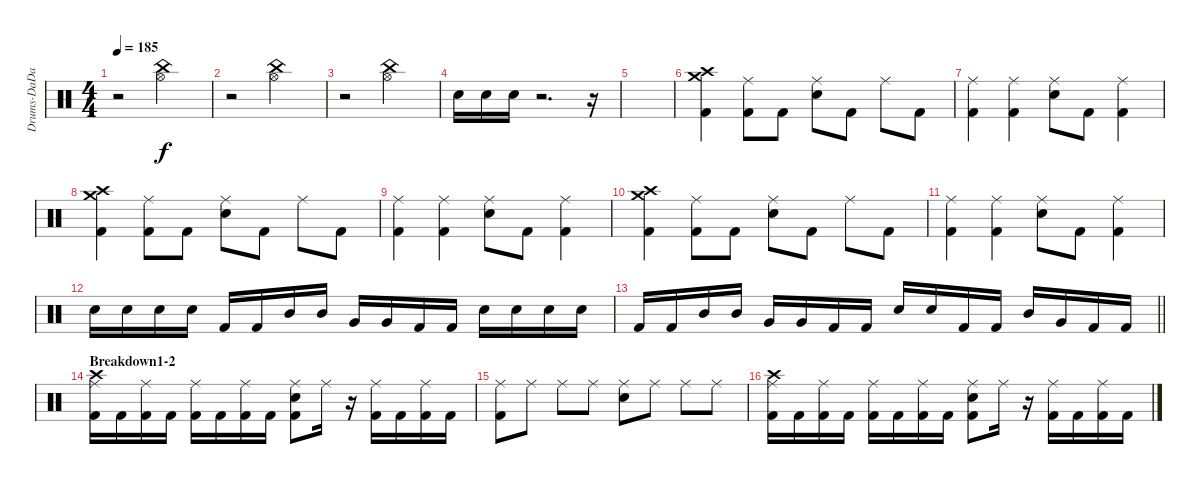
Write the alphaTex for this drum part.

\track ("Drums-DaDa" "Drums-DaDa") {instrument percussion}
\staff {score}
\articulation defaults
\ts (4 4)
\tempo 185
\clef neutral
\ks c
r.2{dy f} ("China (hit)" "Hi-Hat (open)").2 |
r.2 ("China (hit)" "Hi-Hat (open)").2 |
r.2 ("China (hit)" "Hi-Hat (open)").2 |
"Electric Snare (hit)".16 "Electric Snare (hit)".16 "Electric Snare (hit)".16 r.2{d} r.16 |
|
("Crash medium (hit)" "Crash high (hit)" "Kick (hit) 2").4 ("Ride (middle)" "Kick (hit) 2").8 "Kick (hit) 2".8 ("Ride (middle)" "Electric Snare (hit)").8 "Kick (hit) 2".8 "Ride (middle)".8 "Kick (hit) 2".8 |
("Ride (middle)" "Kick (hit) 2").4 ("Ride (middle)" "Kick (hit) 2").4 ("Ride (middle)" "Electric Snare (hit)").8 "Kick (hit) 2".8 ("Ride (middle)" "Kick (hit) 2").4 |
("Crash medium (hit)" "Crash high (hit)" "Kick (hit) 2").4 ("Ride (middle)" "Kick (hit) 2").8 "Kick (hit) 2".8 ("Ride (middle)" "Electric Snare (hit)").8 "Kick (hit) 2".8 "Ride (middle)".8 "Kick (hit) 2".8 |
("Ride (middle)" "Kick (hit) 2").4 ("Ride (middle)" "Kick (hit) 2").4 ("Ride (middle)" "Electric Snare (hit)").8 "Kick (hit) 2".8 ("Ride (middle)" "Kick (hit) 2").4 |
("Crash medium (hit)" "Crash high (hit)" "Kick (hit) 2").4 ("Ride (middle)" "Kick (hit) 2").8 "Kick (hit) 2".8 ("Ride (middle)" "Electric Snare (hit)").8 "Kick (hit) 2".8 "Ride (middle)".8 "Kick (hit) 2".8 |
("Ride (middle)" "Kick (hit) 2").4 ("Ride (middle)" "Kick (hit) 2").4 ("Ride (middle)" "Electric Snare (hit)").8 "Kick (hit) 2".8 ("Ride (middle)" "Kick (hit) 2").4 |
"Electric Snare (hit)".16 "Electric Snare (hit)".16 "Electric Snare (hit)".16 "Electric Snare (hit)".16 "Kick (hit) 2".16 "Kick (hit) 2".16 "Mid Tom (hit)".16 "Mid Tom (hit)".16 "Very Low Tom (hit)".16 "Very Low Tom (hit)".16 "Kick (hit) 2".16 "Kick (hit) 2".16 "Electric Snare (hit)".16 "Electric Snare (hit)".16 "Electric Snare (hit)".16 "Electric Snare (hit)".16 |
\barLineRight lightlight "Kick (hit) 2".16 "Kick (hit) 2".16 "Mid Tom (hit)".16 "Mid Tom (hit)".16 "Very Low Tom (hit)".16 "Very Low Tom (hit)".16 "Kick (hit) 2".16 "Kick (hit) 2".16 "Electric Snare (hit)".16 "Electric Snare (hit)".16 "Kick (hit) 2".16 "Kick (hit) 2".16 "Mid Tom (hit)".16 "Very Low Tom (hit)".16 "Kick (hit) 2".16 "Kick (hit) 2".16
|
\section ("" "Breakdown1-2")
("Crash high (hit)" "Ride (middle)" "Kick (hit) 2").16 "Kick (hit) 2".16 ("Ride (middle)" "Kick (hit) 2").16 "Kick (hit) 2".16 ("Ride (middle)" "Kick (hit) 2").16 "Kick (hit) 2".16 ("Ride (middle)" "Kick (hit) 2").16 "Kick (hit) 2".16 ("Ride (middle)" "Electric Snare (hit)" "Kick (hit) 2").8 "Ride (middle)".16 r.16 ("Ride (middle)" "Kick (hit) 2").16 "Kick (hit) 2".16 ("Ride (middle)" "Kick (hit) 2").16 "Kick (hit) 2".16 |
("Ride (middle)" "Kick (hit) 2").8 "Ride (middle)".8 "Ride (middle)".8 "Ride (middle)".8 ("Ride (middle)" "Electric Snare (hit)").8 "Ride (middle)".8 "Ride (middle)".8 "Ride (middle)".8 |
("Crash high (hit)" "Ride (middle)" "Kick (hit) 2").16 "Kick (hit) 2".16 ("Ride (middle)" "Kick (hit) 2").16 "Kick (hit) 2".16 ("Ride (middle)" "Kick (hit) 2").16 "Kick (hit) 2".16 ("Ride (middle)" "Kick (hit) 2").16 "Kick (hit) 2".16 ("Ride (middle)" "Electric Snare (hit)" "Kick (hit) 2").8 "Ride (middle)".16 r.16 ("Ride (middle)" "Kick (hit) 2").16 "Kick (hit) 2".16 ("Ride (middle)" "Kick (hit) 2").16 "Kick (hit) 2".16
